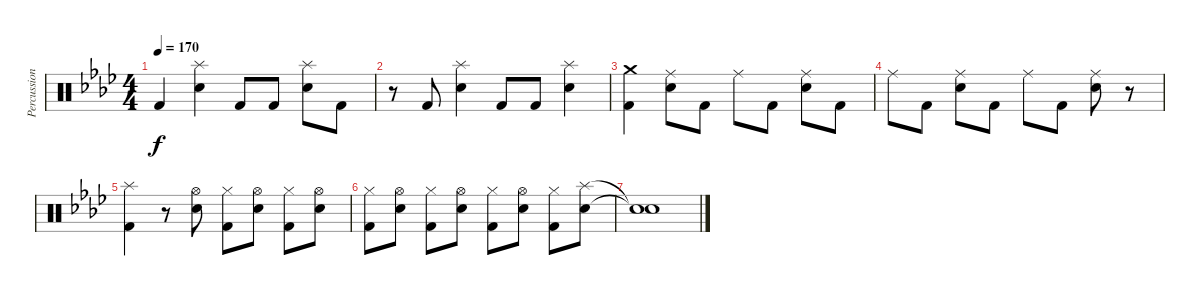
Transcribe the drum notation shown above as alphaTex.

\track ("Percussion" "Percussion") {instrument percussion}
\staff {score}
\articulation defaults
\ts (4 4)
\tempo 170
\clef neutral
\ks ab "Kick (hit) 2".4{dy f}
("Splash (hit)" "Electric Snare (hit)").4 "Kick (hit) 2".8 "Kick (hit) 2".8 ("Splash (hit)" "Electric Snare (hit)").8 "Kick (hit) 2".8 |
r.8 "Kick (hit) 2".8 ("Splash (hit)" "Electric Snare (hit)").4 "Kick (hit) 2".8 "Kick (hit) 2".8 ("Splash (hit)" "Electric Snare (hit)").4 |
("Crash medium (hit)" "Kick (hit) 2").4 ("Ride (middle)" "Electric Snare (hit)").8 "Kick (hit) 2".8 "Ride (middle)".8 "Kick (hit) 2".8 ("Ride (middle)" "Electric Snare (hit)").8 "Kick (hit) 2".8 |
"Ride (middle)".8 "Kick (hit) 2".8 ("Ride (middle)" "Electric Snare (hit)").8 "Kick (hit) 2".8 "Ride (middle)".8 "Kick (hit) 2".8 ("Ride (middle)" "Electric Snare (hit)").8 r.8 |
("Splash (hit)" "Kick (hit) 2").4 r.8 ("Hi-Hat (open)" "Electric Snare (hit)").8 ("Hi-Hat (closed)" "Kick (hit) 2").8 ("Hi-Hat (open)" "Electric Snare (hit)").8 ("Hi-Hat (closed)" "Kick (hit) 2").8 ("Hi-Hat (open)" "Electric Snare (hit)").8 |
("Hi-Hat (closed)" "Kick (hit) 2").8 ("Hi-Hat (open)" "Electric Snare (hit)").8 ("Hi-Hat (closed)" "Kick (hit) 2").8 ("Hi-Hat (open)" "Electric Snare (hit)").8 ("Hi-Hat (closed)" "Kick (hit) 2").8 ("Hi-Hat (open)" "Electric Snare (hit)").8 ("Hi-Hat (closed)" "Kick (hit) 2").8 ("Splash (hit)" "Electric Snare (hit)").8 |
("Snare (hit)"{t} "Snare (hit)"{t}).1
